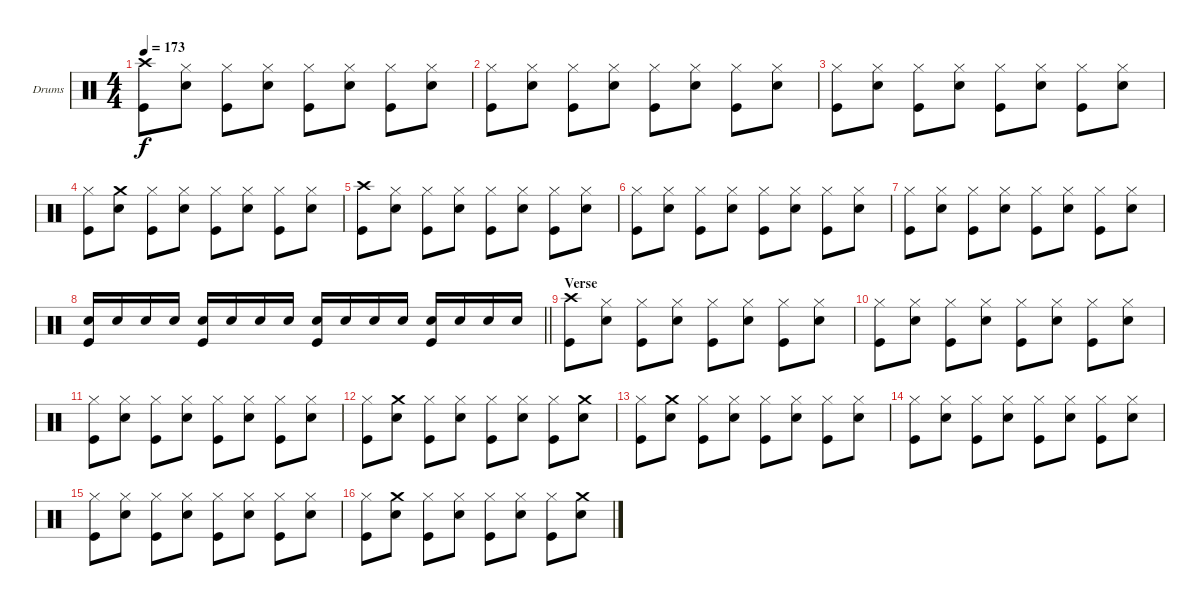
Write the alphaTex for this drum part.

\bracketExtendMode groupsimilarinstruments
\firstSystemTrackNameOrientation horizontal
\otherSystemsTrackNameOrientation horizontal
\track ("Drums" "Drums") {instrument percussion}
\staff {score}
\articulation defaults
\ts (4 4)
\tempo 173
\clef neutral
\ks c
("Crash high (hit)" "Kick (hit)").8{dy f} ("Hi-Hat (closed)" "Snare (hit) 2").8 ("Hi-Hat (closed)" "Kick (hit)").8 ("Hi-Hat (closed)" "Snare (hit) 2").8 ("Hi-Hat (closed)" "Kick (hit)").8 ("Hi-Hat (closed)" "Snare (hit) 2").8 ("Hi-Hat (closed)" "Kick (hit)").8 ("Hi-Hat (closed)" "Snare (hit) 2").8 |
("Hi-Hat (closed)" "Kick (hit)").8 ("Hi-Hat (closed)" "Snare (hit) 2").8 ("Hi-Hat (closed)" "Kick (hit)").8 ("Hi-Hat (closed)" "Snare (hit) 2").8 ("Hi-Hat (closed)" "Kick (hit)").8 ("Hi-Hat (closed)" "Snare (hit) 2").8 ("Hi-Hat (closed)" "Kick (hit)").8 ("Hi-Hat (closed)" "Snare (hit) 2").8 |
("Hi-Hat (closed)" "Kick (hit)").8 ("Hi-Hat (closed)" "Snare (hit) 2").8 ("Hi-Hat (closed)" "Kick (hit)").8 ("Hi-Hat (closed)" "Snare (hit) 2").8 ("Hi-Hat (closed)" "Kick (hit)").8 ("Hi-Hat (closed)" "Snare (hit) 2").8 ("Hi-Hat (closed)" "Kick (hit)").8 ("Hi-Hat (closed)" "Snare (hit) 2").8 |
("Hi-Hat (closed)" "Kick (hit)").8 ("Snare (hit) 2" "Crash medium (hit)").8 ("Hi-Hat (closed)" "Kick (hit)").8 ("Hi-Hat (closed)" "Snare (hit) 2").8 ("Hi-Hat (closed)" "Kick (hit)").8 ("Hi-Hat (closed)" "Snare (hit) 2").8 ("Hi-Hat (closed)" "Kick (hit)").8 ("Hi-Hat (closed)" "Snare (hit) 2").8 |
("Crash high (hit)" "Kick (hit)").8 ("Hi-Hat (closed)" "Snare (hit) 2").8 ("Hi-Hat (closed)" "Kick (hit)").8 ("Hi-Hat (closed)" "Snare (hit) 2").8 ("Hi-Hat (closed)" "Kick (hit)").8 ("Hi-Hat (closed)" "Snare (hit) 2").8 ("Hi-Hat (closed)" "Kick (hit)").8 ("Hi-Hat (closed)" "Snare (hit) 2").8 |
("Hi-Hat (closed)" "Kick (hit)").8 ("Hi-Hat (closed)" "Snare (hit) 2").8 ("Hi-Hat (closed)" "Kick (hit)").8 ("Hi-Hat (closed)" "Snare (hit) 2").8 ("Hi-Hat (closed)" "Kick (hit)").8 ("Hi-Hat (closed)" "Snare (hit) 2").8 ("Hi-Hat (closed)" "Kick (hit)").8 ("Hi-Hat (closed)" "Snare (hit) 2").8 |
("Hi-Hat (closed)" "Kick (hit)").8 ("Hi-Hat (closed)" "Snare (hit) 2").8 ("Hi-Hat (closed)" "Kick (hit)").8 ("Hi-Hat (closed)" "Snare (hit) 2").8 ("Hi-Hat (closed)" "Kick (hit)").8 ("Hi-Hat (closed)" "Snare (hit) 2").8 ("Hi-Hat (closed)" "Kick (hit)").8 ("Hi-Hat (closed)" "Snare (hit) 2").8 |
\barLineRight lightlight
("Snare (hit) 2" "Kick (hit)").16 "Snare (hit) 2".16 "Snare (hit) 2".16 "Snare (hit) 2".16 ("Snare (hit) 2" "Kick (hit)").16 "Snare (hit) 2".16 "Snare (hit) 2".16 "Snare (hit) 2".16 ("Snare (hit) 2" "Kick (hit)").16 "Snare (hit) 2".16 "Snare (hit) 2".16 "Snare (hit) 2".16 ("Snare (hit) 2" "Kick (hit)").16 "Snare (hit) 2".16 "Snare (hit) 2".16 "Snare (hit) 2".16 |
\section ("" "Verse")
("Crash high (hit)" "Kick (hit)").8 ("Hi-Hat (closed)" "Snare (hit) 2").8 ("Hi-Hat (closed)" "Kick (hit)").8 ("Hi-Hat (closed)" "Snare (hit) 2").8 ("Hi-Hat (closed)" "Kick (hit)").8 ("Hi-Hat (closed)" "Snare (hit) 2").8 ("Hi-Hat (closed)" "Kick (hit)").8 ("Hi-Hat (closed)" "Snare (hit) 2").8 |
("Hi-Hat (closed)" "Kick (hit)").8 ("Hi-Hat (closed)" "Snare (hit) 2").8 ("Hi-Hat (closed)" "Kick (hit)").8 ("Hi-Hat (closed)" "Snare (hit) 2").8 ("Hi-Hat (closed)" "Kick (hit)").8 ("Hi-Hat (closed)" "Snare (hit) 2").8 ("Hi-Hat (closed)" "Kick (hit)").8 ("Hi-Hat (closed)" "Snare (hit) 2").8 |
("Hi-Hat (closed)" "Kick (hit)").8 ("Hi-Hat (closed)" "Snare (hit) 2").8 ("Hi-Hat (closed)" "Kick (hit)").8 ("Hi-Hat (closed)" "Snare (hit) 2").8 ("Hi-Hat (closed)" "Kick (hit)").8 ("Hi-Hat (closed)" "Snare (hit) 2").8 ("Hi-Hat (closed)" "Kick (hit)").8 ("Hi-Hat (closed)" "Snare (hit) 2").8 |
("Hi-Hat (closed)" "Kick (hit)").8 ("Snare (hit) 2" "Crash medium (hit)").8 ("Hi-Hat (closed)" "Kick (hit)").8 ("Hi-Hat (closed)" "Snare (hit) 2").8 ("Hi-Hat (closed)" "Kick (hit)").8 ("Hi-Hat (closed)" "Snare (hit) 2").8 ("Hi-Hat (closed)" "Kick (hit)").8 ("Snare (hit) 2" "Crash medium (hit)").8 |
("Kick (hit)" "Hi-Hat (closed)").8 ("Snare (hit) 2" "Crash medium (hit)").8 ("Hi-Hat (closed)" "Kick (hit)").8 ("Hi-Hat (closed)" "Snare (hit) 2").8 ("Hi-Hat (closed)" "Kick (hit)").8 ("Hi-Hat (closed)" "Snare (hit) 2").8 ("Hi-Hat (closed)" "Kick (hit)").8 ("Hi-Hat (closed)" "Snare (hit) 2").8 |
("Hi-Hat (closed)" "Kick (hit)").8 ("Hi-Hat (closed)" "Snare (hit) 2").8 ("Hi-Hat (closed)" "Kick (hit)").8 ("Hi-Hat (closed)" "Snare (hit) 2").8 ("Hi-Hat (closed)" "Kick (hit)").8 ("Hi-Hat (closed)" "Snare (hit) 2").8 ("Hi-Hat (closed)" "Kick (hit)").8 ("Hi-Hat (closed)" "Snare (hit) 2").8 |
("Hi-Hat (closed)" "Kick (hit)").8 ("Hi-Hat (closed)" "Snare (hit) 2").8 ("Hi-Hat (closed)" "Kick (hit)").8 ("Hi-Hat (closed)" "Snare (hit) 2").8 ("Hi-Hat (closed)" "Kick (hit)").8 ("Hi-Hat (closed)" "Snare (hit) 2").8 ("Hi-Hat (closed)" "Kick (hit)").8 ("Hi-Hat (closed)" "Snare (hit) 2").8 |
("Hi-Hat (closed)" "Kick (hit)").8 ("Snare (hit) 2" "Crash medium (hit)").8 ("Hi-Hat (closed)" "Kick (hit)").8 ("Hi-Hat (closed)" "Snare (hit) 2").8 ("Hi-Hat (closed)" "Kick (hit)").8 ("Hi-Hat (closed)" "Snare (hit) 2").8 ("Hi-Hat (closed)" "Kick (hit)").8 ("Snare (hit) 2" "Crash medium (hit)").8
